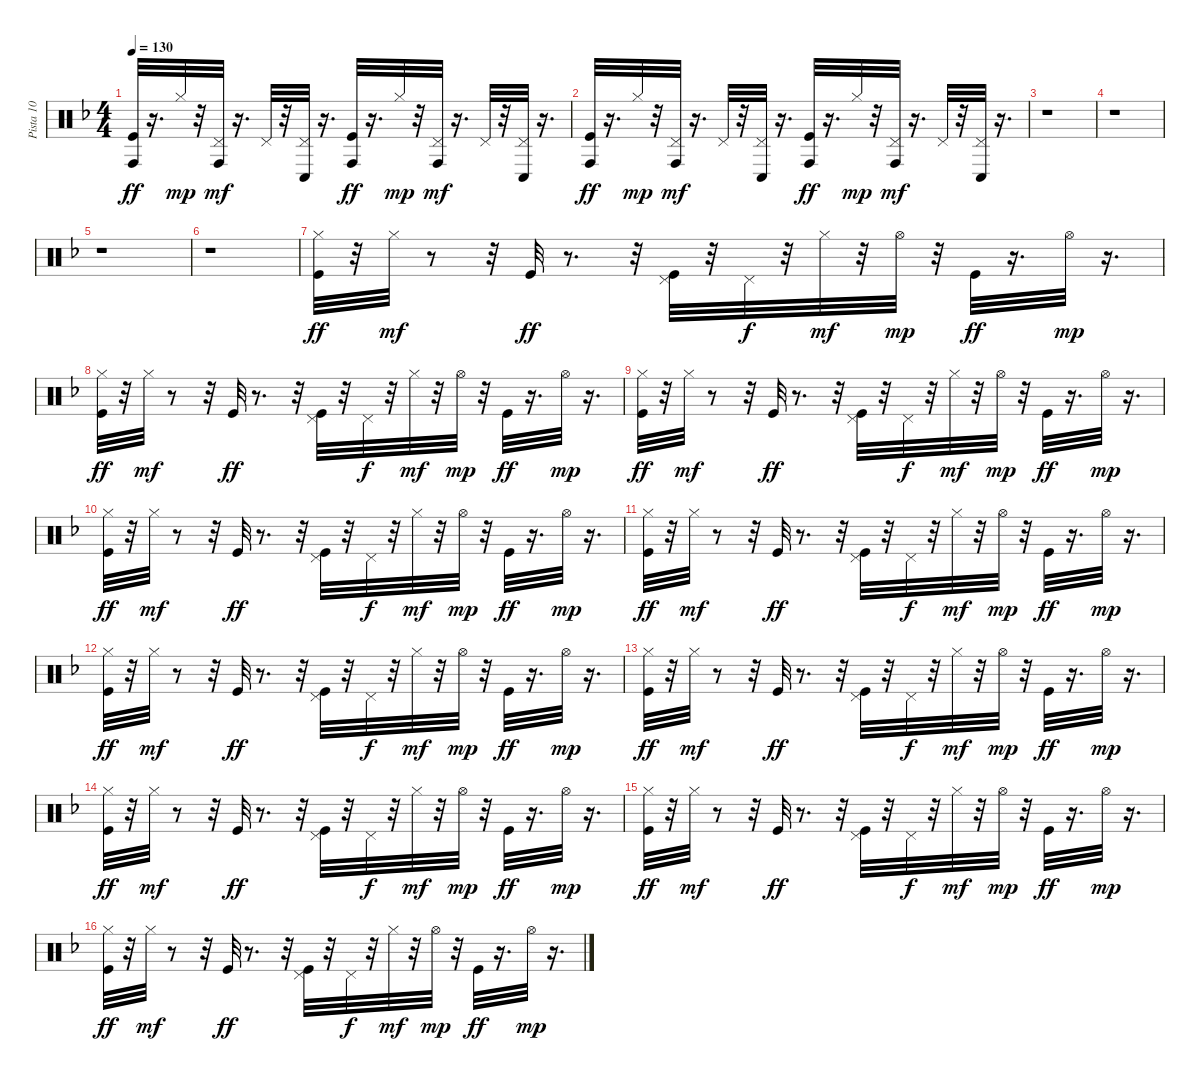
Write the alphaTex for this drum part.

\track ("Pista 10" "Pista 10") {instrument percussion}
\staff {score}
\articulation defaults
\ts (4 4)
\tempo 130
\clef neutral
\ks dminor
("Conga high (hit)" "Kick (hit)").32{dy ff} r.16{d} "Hi-Hat (closed)".32{dy mp} r.32 ("Conga high (hit)" "Pedal Hi-Hat (hit)").32{dy mf} r.16{d} "Pedal Hi-Hat (hit)".32 r.32 ("Conga low (hit)" "Pedal Hi-Hat (hit)").32 r.16{d} ("Conga high (hit)" "Kick (hit)").32{dy ff} r.16{d} "Hi-Hat (closed)".32{dy mp} r.32 ("Conga high (hit)" "Pedal Hi-Hat (hit)").32{dy mf} r.16{d} "Pedal Hi-Hat (hit)".32 r.32 ("Conga low (hit)" "Pedal Hi-Hat (hit)").32 r.16{d} |
("Conga high (hit)" "Kick (hit)").32{dy ff} r.16{d} "Hi-Hat (closed)".32{dy mp} r.32 ("Conga high (hit)" "Pedal Hi-Hat (hit)").32{dy mf} r.16{d} "Pedal Hi-Hat (hit)".32 r.32 ("Conga low (hit)" "Pedal Hi-Hat (hit)").32 r.16{d} ("Conga high (hit)" "Kick (hit)").32{dy ff} r.16{d} "Hi-Hat (closed)".32{dy mp} r.32 ("Conga high (hit)" "Pedal Hi-Hat (hit)").32{dy mf} r.16{d} "Pedal Hi-Hat (hit)".32 r.32 ("Conga low (hit)" "Pedal Hi-Hat (hit)").32 r.16{d} |
r.1 |
r.1 |
r.1 |
r.1 |
("Hi-Hat (closed)" "Kick (hit)").32{dy ff} r.32 "Hi-Hat (closed)".32{dy mf} r.8 r.32 "Kick (hit)".32{dy ff} r.8{d} r.32 ("Pedal Hi-Hat (hit)" "Kick (hit)").32 r.32 "Pedal Hi-Hat (hit)".32{dy f} r.32 "Hi-Hat (closed)".32{dy mf} r.32 "Hi-Hat (open)".32{dy mp} r.32 "Kick (hit)".32{dy ff} r.16{d} "Hi-Hat (open)".32{dy mp} r.16{d} |
("Hi-Hat (closed)" "Kick (hit)").32{dy ff} r.32 "Hi-Hat (closed)".32{dy mf} r.8 r.32 "Kick (hit)".32{dy ff} r.8{d} r.32 ("Pedal Hi-Hat (hit)" "Kick (hit)").32 r.32 "Pedal Hi-Hat (hit)".32{dy f} r.32 "Hi-Hat (closed)".32{dy mf} r.32 "Hi-Hat (open)".32{dy mp} r.32 "Kick (hit)".32{dy ff} r.16{d} "Hi-Hat (open)".32{dy mp} r.16{d} |
("Hi-Hat (closed)" "Kick (hit)").32{dy ff} r.32 "Hi-Hat (closed)".32{dy mf} r.8 r.32 "Kick (hit)".32{dy ff} r.8{d} r.32 ("Pedal Hi-Hat (hit)" "Kick (hit)").32 r.32 "Pedal Hi-Hat (hit)".32{dy f} r.32 "Hi-Hat (closed)".32{dy mf} r.32 "Hi-Hat (open)".32{dy mp} r.32 "Kick (hit)".32{dy ff} r.16{d} "Hi-Hat (open)".32{dy mp} r.16{d} |
("Hi-Hat (closed)" "Kick (hit)").32{dy ff} r.32 "Hi-Hat (closed)".32{dy mf} r.8 r.32 "Kick (hit)".32{dy ff} r.8{d} r.32 ("Pedal Hi-Hat (hit)" "Kick (hit)").32 r.32 "Pedal Hi-Hat (hit)".32{dy f} r.32 "Hi-Hat (closed)".32{dy mf} r.32 "Hi-Hat (open)".32{dy mp} r.32 "Kick (hit)".32{dy ff} r.16{d} "Hi-Hat (open)".32{dy mp} r.16{d} |
("Hi-Hat (closed)" "Kick (hit)").32{dy ff} r.32 "Hi-Hat (closed)".32{dy mf} r.8 r.32 "Kick (hit)".32{dy ff} r.8{d} r.32 ("Pedal Hi-Hat (hit)" "Kick (hit)").32 r.32 "Pedal Hi-Hat (hit)".32{dy f} r.32 "Hi-Hat (closed)".32{dy mf} r.32 "Hi-Hat (open)".32{dy mp} r.32 "Kick (hit)".32{dy ff} r.16{d} "Hi-Hat (open)".32{dy mp} r.16{d} |
("Hi-Hat (closed)" "Kick (hit)").32{dy ff} r.32 "Hi-Hat (closed)".32{dy mf} r.8 r.32 "Kick (hit)".32{dy ff} r.8{d} r.32 ("Pedal Hi-Hat (hit)" "Kick (hit)").32 r.32 "Pedal Hi-Hat (hit)".32{dy f} r.32 "Hi-Hat (closed)".32{dy mf} r.32 "Hi-Hat (open)".32{dy mp} r.32 "Kick (hit)".32{dy ff} r.16{d} "Hi-Hat (open)".32{dy mp} r.16{d} |
("Hi-Hat (closed)" "Kick (hit)").32{dy ff} r.32 "Hi-Hat (closed)".32{dy mf} r.8 r.32 "Kick (hit)".32{dy ff} r.8{d} r.32 ("Pedal Hi-Hat (hit)" "Kick (hit)").32 r.32 "Pedal Hi-Hat (hit)".32{dy f} r.32 "Hi-Hat (closed)".32{dy mf} r.32 "Hi-Hat (open)".32{dy mp} r.32 "Kick (hit)".32{dy ff} r.16{d} "Hi-Hat (open)".32{dy mp} r.16{d} |
("Hi-Hat (closed)" "Kick (hit)").32{dy ff} r.32 "Hi-Hat (closed)".32{dy mf} r.8 r.32 "Kick (hit)".32{dy ff} r.8{d} r.32 ("Pedal Hi-Hat (hit)" "Kick (hit)").32 r.32 "Pedal Hi-Hat (hit)".32{dy f} r.32 "Hi-Hat (closed)".32{dy mf} r.32 "Hi-Hat (open)".32{dy mp} r.32 "Kick (hit)".32{dy ff} r.16{d} "Hi-Hat (open)".32{dy mp} r.16{d} |
("Hi-Hat (closed)" "Kick (hit)").32{dy ff} r.32 "Hi-Hat (closed)".32{dy mf} r.8 r.32 "Kick (hit)".32{dy ff} r.8{d} r.32 ("Pedal Hi-Hat (hit)" "Kick (hit)").32 r.32 "Pedal Hi-Hat (hit)".32{dy f} r.32 "Hi-Hat (closed)".32{dy mf} r.32 "Hi-Hat (open)".32{dy mp} r.32 "Kick (hit)".32{dy ff} r.16{d} "Hi-Hat (open)".32{dy mp} r.16{d} |
("Hi-Hat (closed)" "Kick (hit)").32{dy ff} r.32 "Hi-Hat (closed)".32{dy mf} r.8 r.32 "Kick (hit)".32{dy ff} r.8{d} r.32 ("Pedal Hi-Hat (hit)" "Kick (hit)").32 r.32 "Pedal Hi-Hat (hit)".32{dy f} r.32 "Hi-Hat (closed)".32{dy mf} r.32 "Hi-Hat (open)".32{dy mp} r.32 "Kick (hit)".32{dy ff} r.16{d} "Hi-Hat (open)".32{dy mp} r.16{d}
